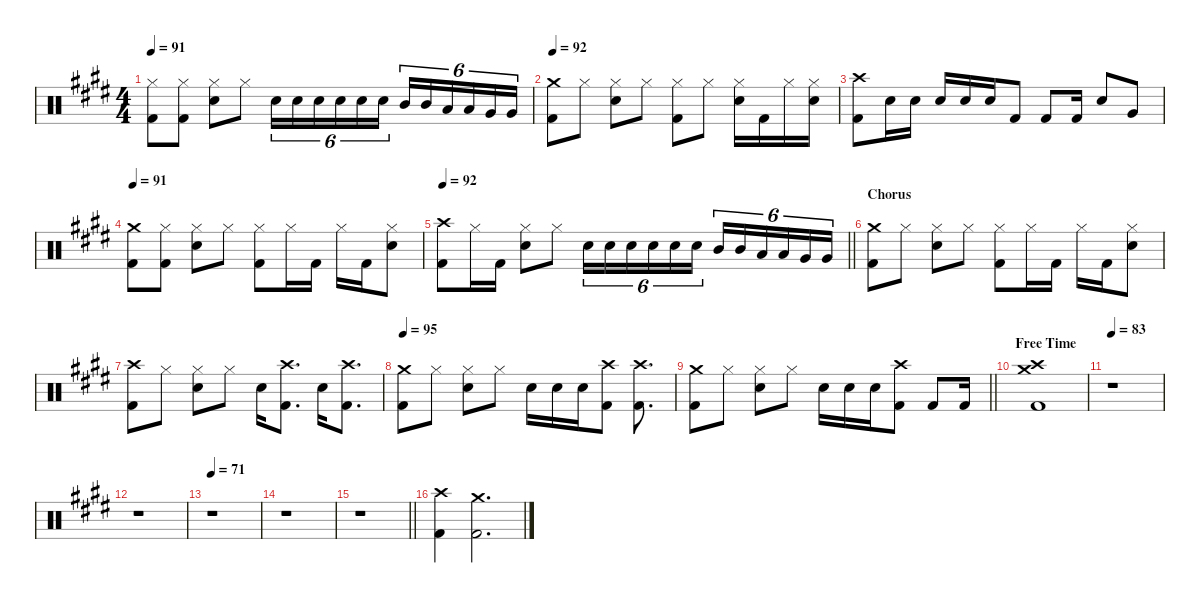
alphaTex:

\defaultSystemsLayout 4
\hideDynamics
\bracketExtendMode nobrackets
\singleTrackTrackNamePolicy hidden
\multiTrackTrackNamePolicy hidden
\firstSystemTrackNameMode fullname
\firstSystemTrackNameOrientation horizontal
\otherSystemsTrackNameOrientation horizontal
\track ("Drums" "drm.") {defaultSystemsLayout 4 instrument percussion}
\staff {score}
\articulation defaults
\ts (4 4)
\tempo 91
\clef neutral
\ks e
("Hi-Hat (closed)"{acc forcenatural} "Kick (hit) 2"{acc forcenatural}).8{dy mf beam Down} ("Hi-Hat (closed)"{acc forcenatural} "Kick (hit) 2"{acc forcenatural}).8{beam Down} ("Hi-Hat (closed)"{acc forcenatural} "Snare (hit) 2"{acc forcenatural}).8{beam Down} "Hi-Hat (closed)"{acc forcenatural}.8{beam Down} "Snare (hit) 2"{acc forcenatural}.16{tu (6 4) dy f beam Down} "Snare (hit) 2"{acc forcenatural}.16{tu (6 4) beam Down} "Snare (hit) 2"{acc forcenatural}.16{tu (6 4) beam Down} "Snare (hit) 2"{acc forcenatural}.16{tu (6 4) beam Down} "Snare (hit) 2"{acc forcenatural}.16{tu (6 4) beam Down} "Snare (hit) 2"{acc forcenatural}.16{tu (6 4) beam Down} "Mid Tom (hit)"{acc forcenatural}.16{tu (6 4) beam Up} "Mid Tom (hit)"{acc forcenatural}.16{tu (6 4) beam Up} "Low Tom (hit)"{acc forcenatural}.16{tu (6 4) beam Up} "Low Tom (hit)"{acc forcenatural}.16{tu (6 4) beam Up} "Very Low Tom (hit)"{acc forcenatural}.16{tu (6 4) beam Up} "Very Low Tom (hit)"{acc forcenatural}.16{tu (6 4) beam Up} |
\tempo 92
("Crash medium (hit)"{acc forcenatural} "Kick (hit) 2"{acc forcenatural}).8{dy mf beam Down} "Hi-Hat (closed)"{acc forcenatural}.8{beam Down} ("Hi-Hat (closed)"{acc forcenatural} "Snare (hit) 2"{acc forcenatural}).8{beam Down} "Hi-Hat (closed)"{acc forcenatural}.8{beam Down} ("Hi-Hat (closed)"{acc forcenatural} "Kick (hit) 2"{acc forcenatural}).8{beam Down} "Hi-Hat (closed)"{acc forcenatural}.8{beam Down} ("Hi-Hat (closed)"{acc forcenatural} "Snare (hit) 2"{acc forcenatural}).16{beam Down} "Kick (hit) 2"{acc forcenatural}.16{dy f beam Down} "Hi-Hat (closed)"{acc forcenatural}.16{dy mf beam Down} ("Hi-Hat (closed)"{acc forcenatural} "Snare (hit) 2"{acc forcenatural}).16{beam Down} |
("Crash high (hit)"{acc forcenatural} "Kick (hit) 2"{acc forcenatural}).8{beam Down} "Snare (hit) 2"{acc forcenatural}.16{dy f beam Down} "Snare (hit) 2"{acc forcenatural}.16{beam Down} "Snare (hit) 2"{acc forcenatural}.16{beam Up} "Snare (hit) 2"{acc forcenatural}.16{beam Up} "Snare (hit) 2"{acc forcenatural}.16{beam Up} "Kick (hit) 2"{acc forcenatural}.8{beam Up} "Kick (hit) 2"{acc forcenatural}.8{beam Up} "Kick (hit) 2"{acc forcenatural}.16{beam Up} "Snare (hit) 2"{acc forcenatural}.8{beam Up} "Very Low Tom (hit)"{acc forcenatural}.8{beam Up} |
\tempo 91
("Crash medium (hit)"{acc forcenatural} "Kick (hit) 2"{acc forcenatural}).8{dy mf beam Down} ("Hi-Hat (closed)"{acc forcenatural} "Kick (hit) 2"{acc forcenatural}).8{beam Down} ("Hi-Hat (closed)"{acc forcenatural} "Snare (hit) 2"{acc forcenatural}).8{beam Down} "Hi-Hat (closed)"{acc forcenatural}.8{beam Down} ("Hi-Hat (closed)"{acc forcenatural} "Kick (hit) 2"{acc forcenatural}).8{beam Down} "Hi-Hat (closed)"{acc forcenatural}.16{beam Down} "Kick (hit) 2"{acc forcenatural}.16{dy f beam Down} "Hi-Hat (closed)"{acc forcenatural}.16{dy mf beam Down} "Kick (hit) 2"{acc forcenatural}.16{dy f beam Down} ("Hi-Hat (closed)"{acc forcenatural} "Snare (hit) 2"{acc forcenatural}).8{dy mf beam Down} |
\tempo 92
\barLineRight lightlight
("Crash high (hit)"{acc forcenatural} "Kick (hit) 2"{acc forcenatural}).8{beam Down} "Hi-Hat (closed)"{acc forcenatural}.16{beam Down} "Kick (hit) 2"{acc forcenatural}.16{dy f beam Down} ("Hi-Hat (closed)"{acc forcenatural} "Snare (hit) 2"{acc forcenatural}).8{dy mf beam Down} "Hi-Hat (closed)"{acc forcenatural}.8{beam Down} "Snare (hit) 2"{acc forcenatural}.16{tu (6 4) dy f beam Down} "Snare (hit) 2"{acc forcenatural}.16{tu (6 4) beam Down} "Snare (hit) 2"{acc forcenatural}.16{tu (6 4) beam Down} "Snare (hit) 2"{acc forcenatural}.16{tu (6 4) beam Down} "Snare (hit) 2"{acc forcenatural}.16{tu (6 4) beam Down} "Snare (hit) 2"{acc forcenatural}.16{tu (6 4) beam Down} "Mid Tom (hit)"{acc forcenatural}.16{tu (6 4) beam Up} "Mid Tom (hit)"{acc forcenatural}.16{tu (6 4) beam Up} "Low Tom (hit)"{acc forcenatural}.16{tu (6 4) beam Up} "Low Tom (hit)"{acc forcenatural}.16{tu (6 4) beam Up} "Very Low Tom (hit)"{acc forcenatural}.16{tu (6 4) beam Up} "Very Low Tom (hit)"{acc forcenatural}.16{tu (6 4) beam Up} |
\section ("" "Chorus")
("Crash medium (hit)"{acc forcenatural} "Kick (hit) 2"{acc forcenatural}).8{dy mf beam Down} "Hi-Hat (closed)"{acc forcenatural}.8{beam Down} ("Hi-Hat (closed)"{acc forcenatural} "Snare (hit) 2"{acc forcenatural}).8{beam Down} "Hi-Hat (closed)"{acc forcenatural}.8{beam Down} ("Hi-Hat (closed)"{acc forcenatural} "Kick (hit) 2"{acc forcenatural}).8{beam Down} "Hi-Hat (closed)"{acc forcenatural}.16{beam Down} "Kick (hit) 2"{acc forcenatural}.16{dy f beam Down} "Hi-Hat (closed)"{acc forcenatural}.16{dy mf beam Down} "Kick (hit) 2"{acc forcenatural}.16{dy f beam Down} ("Hi-Hat (closed)"{acc forcenatural} "Snare (hit) 2"{acc forcenatural}).8{dy mf beam Down} |
("Crash high (hit)"{acc forcenatural} "Kick (hit) 2"{acc forcenatural}).8{beam Down} "Hi-Hat (closed)"{acc forcenatural}.8{beam Down} ("Hi-Hat (closed)"{acc forcenatural} "Snare (hit) 2"{acc forcenatural}).8{beam Down} "Hi-Hat (closed)"{acc forcenatural}.8{beam Down} "Snare (hit) 2"{acc forcenatural}.16{dy f beam Down} ("Crash high (hit)"{acc forcenatural} "Kick (hit) 2"{acc forcenatural}).8{d dy mf beam Down} "Snare (hit) 2"{acc forcenatural}.16{dy f beam Down} ("Crash high (hit)"{acc forcenatural} "Kick (hit) 2"{acc forcenatural}).8{d dy mf beam Down} |
\tempo 95
("Crash medium (hit)"{acc forcenatural} "Kick (hit) 2"{acc forcenatural}).8{beam Down} "Hi-Hat (closed)"{acc forcenatural}.8{beam Down} ("Hi-Hat (closed)"{acc forcenatural} "Snare (hit) 2"{acc forcenatural}).8{beam Down} "Hi-Hat (closed)"{acc forcenatural}.8{beam Down} "Snare (hit) 2"{acc forcenatural}.16{dy f beam Down} "Snare (hit) 2"{acc forcenatural}.16{beam Down} "Snare (hit) 2"{acc forcenatural}.16{beam Down} ("Crash high (hit)"{acc forcenatural} "Kick (hit) 2"{acc forcenatural}).8{dy mf beam Down} ("Crash high (hit)"{acc forcenatural} "Kick (hit) 2"{acc forcenatural}).8{d beam Down} |
\barLineRight lightlight
("Crash medium (hit)"{acc forcenatural} "Kick (hit) 2"{acc forcenatural}).8{beam Down} "Hi-Hat (closed)"{acc forcenatural}.8{beam Down} ("Hi-Hat (closed)"{acc forcenatural} "Snare (hit) 2"{acc forcenatural}).8{beam Down} "Hi-Hat (closed)"{acc forcenatural}.8{beam Down} "Snare (hit) 2"{acc forcenatural}.16{dy f beam Down} "Snare (hit) 2"{acc forcenatural}.16{beam Down} "Snare (hit) 2"{acc forcenatural}.16{beam Down} ("Crash high (hit)"{acc forcenatural} "Kick (hit) 2"{acc forcenatural}).8{dy mf beam Down} "Kick (hit) 2"{acc forcenatural}.8{dy f beam Up} "Kick (hit) 2"{acc forcenatural}.16{beam Up} |
\section ("" "Free Time")
("Crash high (hit)"{acc forcenatural} "Crash medium (hit)"{acc forcenatural} "Kick (hit) 2"{acc forcenatural}).1{dy mf beam Down} |
\tempo 83
r.1{beam Down} |
r.1{beam Down} |
\tempo 71
r.1{beam Down} |
r.1{beam Down} |
\barLineRight lightlight
r.1{beam Down} |
("Crash high (hit)"{acc forcenatural} "Kick (hit) 2"{acc forcenatural}).4{beam Down} ("Crash medium (hit)"{acc forcenatural} "Kick (hit) 2"{acc forcenatural}).2{d beam Down}
